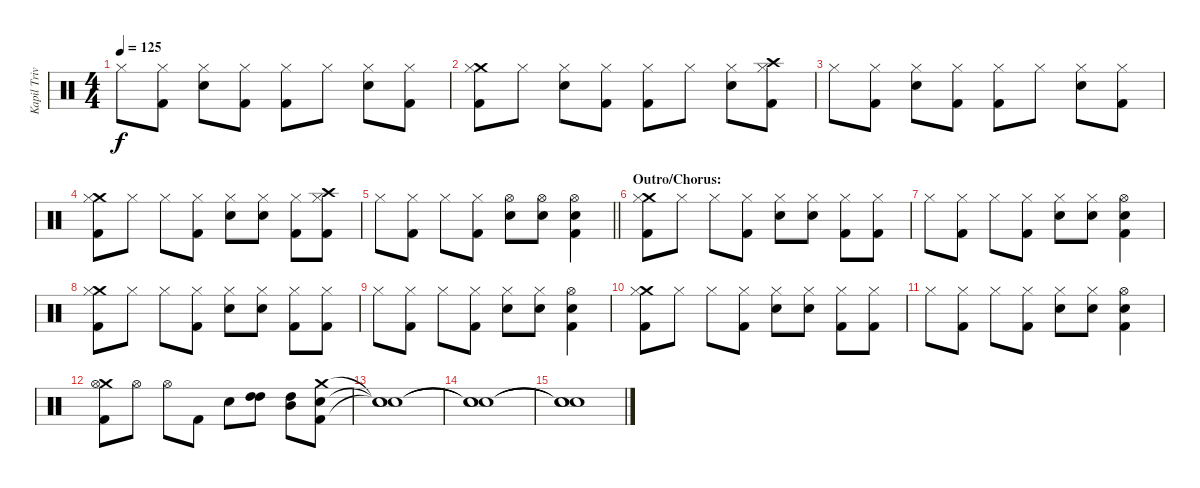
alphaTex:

\track ("Kapil Trivedi (Percussion)" "Kapil Triv") {instrument percussion}
\staff {score}
\articulation defaults
\ts (4 4)
\tempo 125
\clef neutral
\ks c "Hi-Hat (closed)".8{dy f}
("Hi-Hat (closed)" "Kick (hit) 2").8 ("Hi-Hat (closed)" "Snare (hit) 2").8 ("Hi-Hat (closed)" "Kick (hit) 2").8 ("Hi-Hat (closed)" "Kick (hit) 2").8 "Hi-Hat (closed)".8 ("Hi-Hat (closed)" "Snare (hit) 2").8 ("Hi-Hat (closed)" "Kick (hit) 2").8 |
("Crash medium (hit)" "Hi-Hat (closed)" "Kick (hit) 2").8 "Hi-Hat (closed)".8 ("Hi-Hat (closed)" "Snare (hit) 2").8 ("Hi-Hat (closed)" "Kick (hit) 2").8 ("Hi-Hat (closed)" "Kick (hit) 2").8 "Hi-Hat (closed)".8 ("Hi-Hat (closed)" "Snare (hit) 2").8 ("Crash high (hit)" "Hi-Hat (closed)" "Kick (hit) 2").8 |
"Hi-Hat (closed)".8 ("Hi-Hat (closed)" "Kick (hit) 2").8 ("Hi-Hat (closed)" "Snare (hit) 2").8 ("Hi-Hat (closed)" "Kick (hit) 2").8 ("Hi-Hat (closed)" "Kick (hit) 2").8 "Hi-Hat (closed)".8 ("Hi-Hat (closed)" "Snare (hit) 2").8 ("Hi-Hat (closed)" "Kick (hit) 2").8 |
("Crash medium (hit)" "Hi-Hat (closed)" "Kick (hit) 2").8 "Hi-Hat (closed)".8 "Hi-Hat (closed)".8 ("Hi-Hat (closed)" "Kick (hit) 2").8 ("Hi-Hat (closed)" "Snare (hit) 2").8 ("Hi-Hat (closed)" "Snare (hit) 2").8 ("Hi-Hat (closed)" "Kick (hit) 2").8 ("Crash high (hit)" "Hi-Hat (closed)" "Kick (hit) 2").8 |
\barLineRight lightlight "Hi-Hat (closed)".8
("Hi-Hat (closed)" "Kick (hit) 2").8 "Hi-Hat (closed)".8 ("Hi-Hat (closed)" "Kick (hit) 2").8 ("Hi-Hat (open)" "Snare (hit) 2").8 ("Hi-Hat (open)" "Snare (hit) 2").8 ("Hi-Hat (open)" "Snare (hit) 2" "Kick (hit) 2").4 |
\section ("" "Outro/Chorus:")
("Crash medium (hit)" "Hi-Hat (closed)" "Kick (hit) 2").8 "Hi-Hat (closed)".8 "Hi-Hat (closed)".8 ("Hi-Hat (closed)" "Kick (hit) 2").8 ("Hi-Hat (closed)" "Snare (hit) 2").8 ("Hi-Hat (closed)" "Snare (hit) 2").8 ("Hi-Hat (closed)" "Kick (hit) 2").8 ("Hi-Hat (closed)" "Kick (hit) 2").8 |
"Hi-Hat (closed)".8 ("Hi-Hat (closed)" "Kick (hit) 2").8 "Hi-Hat (closed)".8 ("Hi-Hat (closed)" "Kick (hit) 2").8 ("Hi-Hat (closed)" "Snare (hit) 2").8 ("Hi-Hat (closed)" "Snare (hit) 2").8 ("Hi-Hat (open)" "Snare (hit) 2" "Kick (hit) 2").4 |
("Crash medium (hit)" "Hi-Hat (closed)" "Kick (hit) 2").8 "Hi-Hat (closed)".8 "Hi-Hat (closed)".8 ("Hi-Hat (closed)" "Kick (hit) 2").8 ("Hi-Hat (closed)" "Snare (hit) 2").8 ("Hi-Hat (closed)" "Snare (hit) 2").8 ("Hi-Hat (closed)" "Kick (hit) 2").8 ("Hi-Hat (closed)" "Kick (hit) 2").8 |
"Hi-Hat (closed)".8 ("Hi-Hat (closed)" "Kick (hit) 2").8 "Hi-Hat (closed)".8 ("Hi-Hat (closed)" "Kick (hit) 2").8 ("Hi-Hat (closed)" "Snare (hit) 2").8 ("Hi-Hat (closed)" "Snare (hit) 2").8 ("Hi-Hat (open)" "Snare (hit) 2" "Kick (hit) 2").4 |
("Crash medium (hit)" "Hi-Hat (closed)" "Kick (hit) 2").8 "Hi-Hat (closed)".8 "Hi-Hat (closed)".8 ("Hi-Hat (closed)" "Kick (hit) 2").8 ("Hi-Hat (closed)" "Snare (hit) 2").8 ("Hi-Hat (closed)" "Snare (hit) 2").8 ("Hi-Hat (closed)" "Kick (hit) 2").8 ("Hi-Hat (closed)" "Kick (hit) 2").8 |
"Hi-Hat (closed)".8 ("Hi-Hat (closed)" "Kick (hit) 2").8 "Hi-Hat (closed)".8 ("Hi-Hat (closed)" "Kick (hit) 2").8 ("Hi-Hat (closed)" "Snare (hit) 2").8 ("Hi-Hat (closed)" "Snare (hit) 2").8 ("Hi-Hat (open)" "Snare (hit) 2" "Kick (hit) 2").4 |
("Crash medium (hit)" "Hi-Hat (open)" "Kick (hit) 2").8 "Hi-Hat (open)".8 "Hi-Hat (open)".8 "Kick (hit) 2".8 "Snare (hit) 2".8 ("High Tom (hit)" "High Tom (hit)").8 ("High Tom (hit)" "Mid Tom (hit)").8 ("Crash medium (hit)" "Snare (hit) 2" "Kick (hit) 2").8 |
("Snare (hit)"{t} "Snare (hit)"{t} "Snare (hit)"{t}).1 |
("Snare (hit)"{t} "Snare (hit)"{t} "Snare (hit)"{t}).1{volume 2} |
("Snare (hit)"{t} "Snare (hit)"{t} "Snare (hit)"{t}).1
